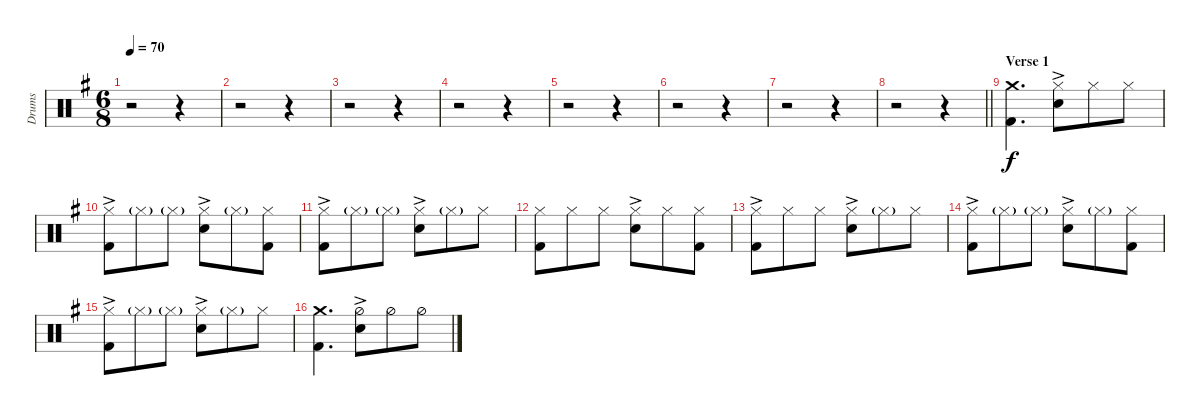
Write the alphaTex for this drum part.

\track ("Drums" "Drums") {instrument percussion}
\staff {score}
\articulation defaults
\ts (6 8)
\tempo 70
\clef neutral
\ks g
r.2{dy f} r.4 |
r.2 r.4 |
r.2 r.4 |
r.2 r.4 |
r.2 r.4 |
r.2 r.4 |
r.2 r.4 |
\barLineRight lightlight
r.2 r.4 |
\section ("" "Verse 1")
("Crash medium (hit)" "Kick (hit) 2").4{d} ("Hi-Hat (closed)" "Snare (hit) 2"{ac}).8 "Hi-Hat (closed)".8 "Hi-Hat (closed)".8 |
("Hi-Hat (closed)"{ac} "Kick (hit) 2").8 "Hi-Hat (closed)"{g}.8 "Hi-Hat (closed)"{g}.8 ("Hi-Hat (closed)"{ac} "Snare (hit) 2").8 "Hi-Hat (closed)"{g}.8 ("Hi-Hat (closed)" "Kick (hit) 2").8 |
("Hi-Hat (closed)"{ac} "Kick (hit) 2").8 "Hi-Hat (closed)"{g}.8 "Hi-Hat (closed)"{g}.8 ("Hi-Hat (closed)"{ac} "Snare (hit) 2").8 "Hi-Hat (closed)"{g}.8 "Hi-Hat (closed)".8 |
("Hi-Hat (closed)" "Kick (hit) 2").8 "Hi-Hat (closed)".8 "Hi-Hat (closed)".8 ("Hi-Hat (closed)" "Snare (hit) 2"{ac}).8 "Hi-Hat (closed)".8 ("Hi-Hat (closed)" "Kick (hit) 2").8 |
("Hi-Hat (closed)"{ac} "Kick (hit) 2").8 "Hi-Hat (closed)".8 "Hi-Hat (closed)".8 ("Hi-Hat (closed)"{ac} "Snare (hit) 2").8 "Hi-Hat (closed)"{g}.8 "Hi-Hat (closed)".8 |
("Hi-Hat (closed)"{ac} "Kick (hit) 2").8 "Hi-Hat (closed)"{g}.8 "Hi-Hat (closed)"{g}.8 ("Hi-Hat (closed)"{ac} "Snare (hit) 2").8 "Hi-Hat (closed)"{g}.8 ("Hi-Hat (closed)" "Kick (hit) 2").8 |
("Hi-Hat (closed)"{ac} "Kick (hit) 2").8 "Hi-Hat (closed)"{g}.8 "Hi-Hat (closed)"{g}.8 ("Hi-Hat (closed)"{ac} "Snare (hit) 2").8 "Hi-Hat (closed)"{g}.8 "Hi-Hat (closed)".8 |
("Crash medium (hit)" "Kick (hit) 2").4{d} ("Snare (hit) 2" "Hi-Hat (half)"{ac}).8 "Hi-Hat (half)".8 "Hi-Hat (half)".8
